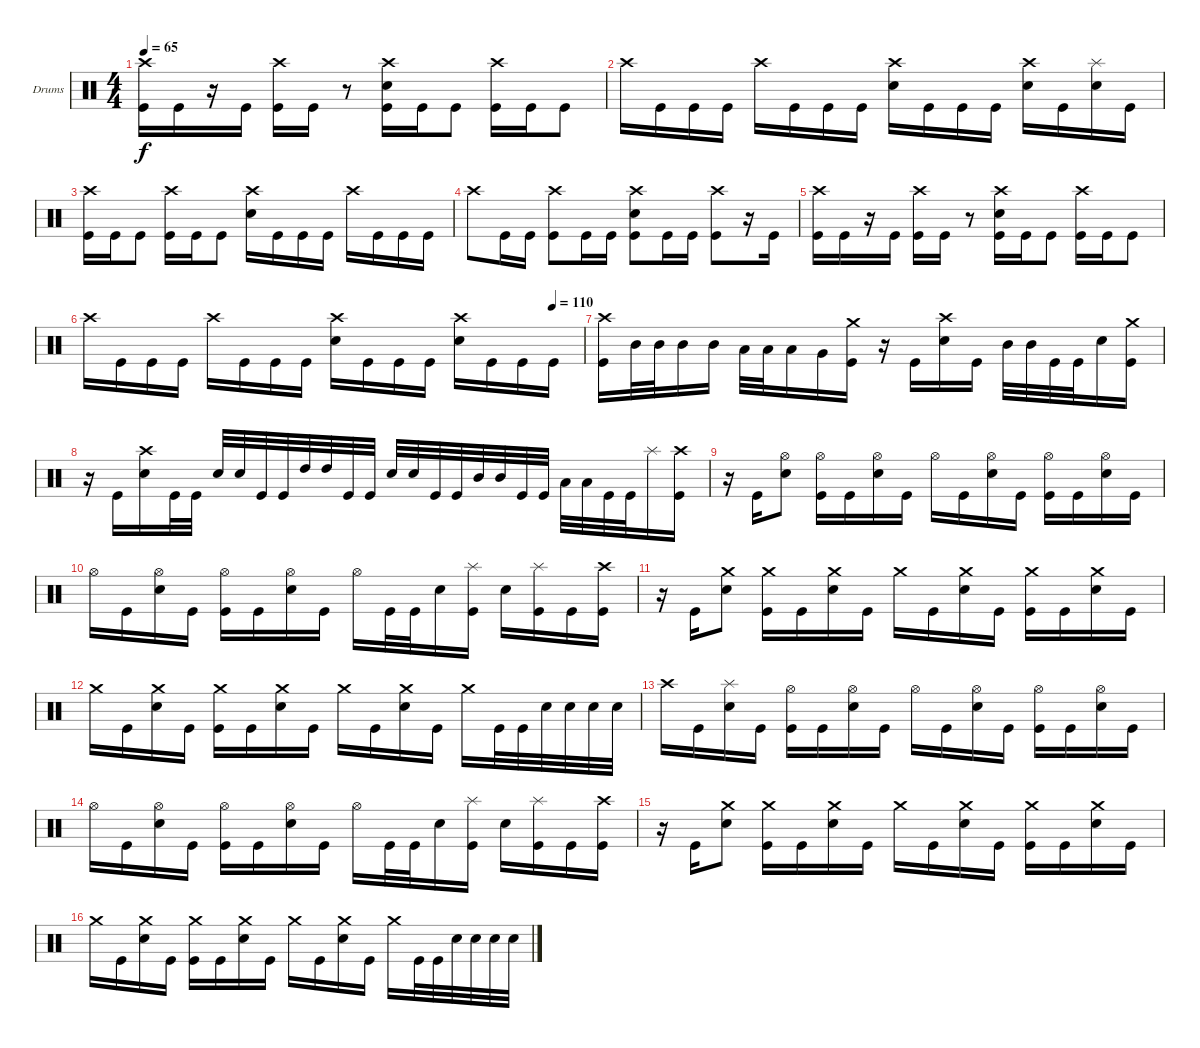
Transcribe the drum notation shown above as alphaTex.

\defaultSystemsLayout 4
\bracketExtendMode groupsimilarinstruments
\firstSystemTrackNameOrientation horizontal
\otherSystemsTrackNameOrientation horizontal
\track ("Drumkit" "Drums") {instrument percussion}
\staff {score}
\articulation defaults
\ts (4 4)
\tempo 65
\clef neutral
\scale
0.471215
\ks c
("Crash high (hit)" "Kick (hit)").16{dy f} "Kick (hit)".16 r.16 "Kick (hit)".16 ("Crash high (hit)" "Kick (hit)").16 "Kick (hit)".16 r.8 ("Crash high (hit)" "Snare (hit) 2" "Kick (hit)").16 "Kick (hit)".16 "Kick (hit)".8 ("Crash high (hit)" "Kick (hit)").16 "Kick (hit)".16 "Kick (hit)".8 |
\scale
0.528785 "Crash high (hit)".16 "Kick (hit)".16 "Kick (hit)".16 "Kick (hit)".16 "Crash high (hit)".16 "Kick (hit)".16 "Kick (hit)".16 "Kick (hit)".16 ("Crash high (hit)" "Snare (hit) 2").16 "Kick (hit)".16 "Kick (hit)".16 "Kick (hit)".16 ("Crash high (hit)" "Snare (hit) 2").16 "Kick (hit)".16 ("Splash (hit)" "Snare (hit) 2").16 "Kick (hit)".16 |
\scale
0.520362 ("Crash high (hit)" "Kick (hit)").16 "Kick (hit)".16 "Kick (hit)".8 ("Crash high (hit)" "Kick (hit)").16 "Kick (hit)".16 "Kick (hit)".8 ("Crash high (hit)" "Snare (hit) 2").16 "Kick (hit)".16 "Kick (hit)".16 "Kick (hit)".16 "Crash high (hit)".16 "Kick (hit)".16 "Kick (hit)".16 "Kick (hit)".16 |
\scale
0.479638 "Crash high (hit)".8 "Kick (hit)".16 "Kick (hit)".16 ("Crash high (hit)" "Kick (hit)").8 "Kick (hit)".16 "Kick (hit)".16 ("Crash high (hit)" "Snare (hit) 2" "Kick (hit)").8 "Kick (hit)".16 "Kick (hit)".16 ("Crash high (hit)" "Kick (hit)").8 r.16 "Kick (hit)".16 |
\scale
0.471215 ("Crash high (hit)" "Kick (hit)").16 "Kick (hit)".16 r.16 "Kick (hit)".16 ("Crash high (hit)" "Kick (hit)").16 "Kick (hit)".16 r.8 ("Crash high (hit)" "Snare (hit) 2" "Kick (hit)").16 "Kick (hit)".16 "Kick (hit)".8 ("Crash high (hit)" "Kick (hit)").16 "Kick (hit)".16 "Kick (hit)".8 |
\tempo (110 0.9375)
\scale
0.528785 "Crash high (hit)".16 "Kick (hit)".16 "Kick (hit)".16 "Kick (hit)".16 "Crash high (hit)".16 "Kick (hit)".16 "Kick (hit)".16 "Kick (hit)".16 ("Crash high (hit)" "Snare (hit) 2").16 "Kick (hit)".16 "Kick (hit)".16 "Kick (hit)".16 ("Crash high (hit)" "Snare (hit) 2").16 "Kick (hit)".16 "Kick (hit)".16 "Kick (hit)".16 |
\scale
0.461295 ("Crash high (hit)" "Kick (hit)").16 "Mid Tom (hit)".32 "Mid Tom (hit)".32 "Mid Tom (hit)".16 "Mid Tom (hit)".16 "Low Tom (hit)".32 "Low Tom (hit)".32 "Low Tom (hit)".16 "Very Low Tom (hit)".16 ("Crash medium (hit)" "Kick (hit)").16 r.16 "Kick (hit)".16 ("Crash high (hit)" "Snare (hit) 2").16 "Kick (hit)".16 "Mid Tom (hit)".32 "Mid Tom (hit)".32 "Kick (hit)".32 "Kick (hit)".32 "Snare (hit) 2".16 ("Crash medium (hit)" "Kick (hit)").16 |
\scale
0.538705 r.16 "Kick (hit)".16 ("Crash high (hit)" "Snare (hit) 2").16 "Kick (hit)".32 "Kick (hit)".32 "Snare (hit) 2".32 "Snare (hit) 2".32 "Kick (hit)".32 "Kick (hit)".32 "High Tom (hit)".32 "High Tom (hit)".32 "Kick (hit)".32 "Kick (hit)".32 "Snare (hit) 2".32 "Snare (hit) 2".32 "Kick (hit)".32 "Kick (hit)".32 "Mid Tom (hit)".32 "Mid Tom (hit)".32 "Kick (hit)".32 "Kick (hit)".32 "Low Tom (hit)".32 "Low Tom (hit)".32 "Kick (hit)".32 "Kick (hit)".32 "Splash (hit)".16 ("Crash high (hit)" "Kick (hit)").16 |
\scale
0.468627 r.16 "Kick (hit)".16 ("Hi-Hat (open)" "Snare (hit) 2").8 ("Hi-Hat (open)" "Kick (hit)").16 "Kick (hit)".16 ("Hi-Hat (open)" "Snare (hit) 2").16 "Kick (hit)".16 "Hi-Hat (open)".16 "Kick (hit)".16 ("Hi-Hat (open)" "Snare (hit) 2").16 "Kick (hit)".16 ("Hi-Hat (open)" "Kick (hit)").16 "Kick (hit)".16 ("Hi-Hat (open)" "Snare (hit) 2").16 "Kick (hit)".16 |
\scale
0.531373 "Hi-Hat (open)".16 "Kick (hit)".16 ("Hi-Hat (open)" "Snare (hit) 2").16 "Kick (hit)".16 ("Hi-Hat (open)" "Kick (hit)").16 "Kick (hit)".16 ("Hi-Hat (open)" "Snare (hit) 2").16 "Kick (hit)".16 "Hi-Hat (open)".16 "Kick (hit)".32 "Kick (hit)".32 "Snare (hit) 2".16 ("Splash (hit)" "Kick (hit)").16 "Snare (hit) 2".16 ("Splash (hit)" "Kick (hit)").16 "Kick (hit)".16 ("Crash high (hit)" "Kick (hit)").16 |
\scale
0.456107 r.16 "Kick (hit)".16 ("Crash medium (hit)" "Snare (hit) 2").8 ("Crash medium (hit)" "Kick (hit)").16 "Kick (hit)".16 ("Crash medium (hit)" "Snare (hit) 2").16 "Kick (hit)".16 "Crash medium (hit)".16 "Kick (hit)".16 ("Crash medium (hit)" "Snare (hit) 2").16 "Kick (hit)".16 ("Crash medium (hit)" "Kick (hit)").16 "Kick (hit)".16 ("Crash medium (hit)" "Snare (hit) 2").16 "Kick (hit)".16 |
\scale
0.543893 "Crash medium (hit)".16 "Kick (hit)".16 ("Crash medium (hit)" "Snare (hit) 2").16 "Kick (hit)".16 ("Crash medium (hit)" "Kick (hit)").16 "Kick (hit)".16 ("Crash medium (hit)" "Snare (hit) 2").16 "Kick (hit)".16 "Crash medium (hit)".16 "Kick (hit)".16 ("Crash medium (hit)" "Snare (hit) 2").16 "Kick (hit)".16 "Crash medium (hit)".16 "Kick (hit)".32 "Kick (hit)".32 "Snare (hit) 2".32 "Snare (hit) 2".32 "Snare (hit) 2".32 "Snare (hit) 2".32 |
\scale
0.477842 "Crash high (hit)".16 "Kick (hit)".16 ("Splash (hit)" "Snare (hit) 2").16 "Kick (hit)".16 ("Hi-Hat (open)" "Kick (hit)").16 "Kick (hit)".16 ("Hi-Hat (open)" "Snare (hit) 2").16 "Kick (hit)".16 "Hi-Hat (open)".16 "Kick (hit)".16 ("Hi-Hat (open)" "Snare (hit) 2").16 "Kick (hit)".16 ("Hi-Hat (open)" "Kick (hit)").16 "Kick (hit)".16 ("Hi-Hat (open)" "Snare (hit) 2").16 "Kick (hit)".16 |
\scale
0.522158 "Hi-Hat (open)".16 "Kick (hit)".16 ("Hi-Hat (open)" "Snare (hit) 2").16 "Kick (hit)".16 ("Hi-Hat (open)" "Kick (hit)").16 "Kick (hit)".16 ("Hi-Hat (open)" "Snare (hit) 2").16 "Kick (hit)".16 "Hi-Hat (open)".16 "Kick (hit)".32 "Kick (hit)".32 "Snare (hit) 2".16 ("Splash (hit)" "Kick (hit)").16 "Snare (hit) 2".16 ("Splash (hit)" "Kick (hit)").16 "Kick (hit)".16 ("Crash high (hit)" "Kick (hit)").16 |
\scale
0.456107 r.16 "Kick (hit)".16 ("Crash medium (hit)" "Snare (hit) 2").8 ("Crash medium (hit)" "Kick (hit)").16 "Kick (hit)".16 ("Crash medium (hit)" "Snare (hit) 2").16 "Kick (hit)".16 "Crash medium (hit)".16 "Kick (hit)".16 ("Crash medium (hit)" "Snare (hit) 2").16 "Kick (hit)".16 ("Crash medium (hit)" "Kick (hit)").16 "Kick (hit)".16 ("Crash medium (hit)" "Snare (hit) 2").16 "Kick (hit)".16 |
\scale
0.543893 "Crash medium (hit)".16 "Kick (hit)".16 ("Crash medium (hit)" "Snare (hit) 2").16 "Kick (hit)".16 ("Crash medium (hit)" "Kick (hit)").16 "Kick (hit)".16 ("Crash medium (hit)" "Snare (hit) 2").16 "Kick (hit)".16 "Crash medium (hit)".16 "Kick (hit)".16 ("Crash medium (hit)" "Snare (hit) 2").16 "Kick (hit)".16 "Crash medium (hit)".16 "Kick (hit)".32 "Kick (hit)".32 "Snare (hit) 2".32 "Snare (hit) 2".32 "Snare (hit) 2".32 "Snare (hit) 2".32
